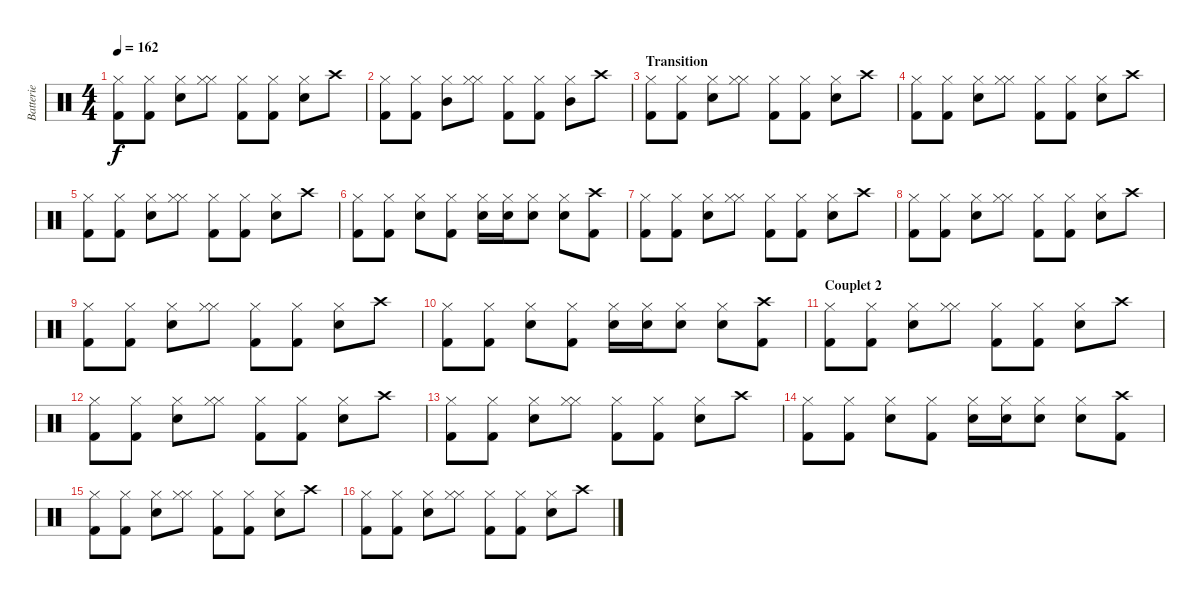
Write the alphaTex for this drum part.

\track ("Batterie" "Batterie") {instrument percussion}
\staff {score}
\articulation defaults
\ts (4 4)
\tempo 162
\clef neutral
\ks c
("Kick (hit) 2" "Hi-Hat (closed)").8{dy f} ("Kick (hit) 2" "Hi-Hat (closed)").8 ("Snare (hit) 2" "Hi-Hat (closed)").8 ("Hi-Hat (closed)" "Hi-Hat (closed)").8 ("Kick (hit) 2" "Hi-Hat (closed)").8 ("Kick (hit) 2" "Hi-Hat (closed)").8 ("Snare (hit) 2" "Hi-Hat (closed)").8 "Crash high (hit)".8 |
("Kick (hit) 2" "Hi-Hat (closed)").8 ("Kick (hit) 2" "Hi-Hat (closed)").8 ("Mid Tom (hit)" "Hi-Hat (closed)").8 ("Hi-Hat (closed)" "Hi-Hat (closed)").8 ("Kick (hit) 2" "Hi-Hat (closed)").8 ("Kick (hit) 2" "Hi-Hat (closed)").8 ("Mid Tom (hit)" "Hi-Hat (closed)").8 "Crash high (hit)".8 |
\section ("" "Transition")
("Kick (hit) 2" "Hi-Hat (closed)").8 ("Kick (hit) 2" "Hi-Hat (closed)").8 ("Snare (hit) 2" "Hi-Hat (closed)").8 ("Hi-Hat (closed)" "Hi-Hat (closed)").8 ("Kick (hit) 2" "Hi-Hat (closed)").8 ("Kick (hit) 2" "Hi-Hat (closed)").8 ("Snare (hit) 2" "Hi-Hat (closed)").8 "Crash high (hit)".8 |
("Kick (hit) 2" "Hi-Hat (closed)").8 ("Kick (hit) 2" "Hi-Hat (closed)").8 ("Snare (hit) 2" "Hi-Hat (closed)").8 ("Hi-Hat (closed)" "Hi-Hat (closed)").8 ("Kick (hit) 2" "Hi-Hat (closed)").8 ("Kick (hit) 2" "Hi-Hat (closed)").8 ("Snare (hit) 2" "Hi-Hat (closed)").8 "Crash high (hit)".8 |
("Kick (hit) 2" "Hi-Hat (closed)").8 ("Kick (hit) 2" "Hi-Hat (closed)").8 ("Snare (hit) 2" "Hi-Hat (closed)").8 ("Hi-Hat (closed)" "Hi-Hat (closed)").8 ("Kick (hit) 2" "Hi-Hat (closed)").8 ("Kick (hit) 2" "Hi-Hat (closed)").8 ("Snare (hit) 2" "Hi-Hat (closed)").8 "Crash high (hit)".8 |
("Kick (hit) 2" "Hi-Hat (closed)").8 ("Kick (hit) 2" "Hi-Hat (closed)").8 ("Snare (hit) 2" "Hi-Hat (closed)").8 ("Kick (hit) 2" "Hi-Hat (closed)").8 ("Snare (hit) 2" "Hi-Hat (closed)").16 ("Snare (hit) 2" "Hi-Hat (closed)").16 ("Snare (hit) 2" "Hi-Hat (closed)").8 ("Snare (hit) 2" "Hi-Hat (closed)").8 ("Kick (hit) 2" "Crash high (hit)").8 |
("Kick (hit) 2" "Hi-Hat (closed)").8 ("Kick (hit) 2" "Hi-Hat (closed)").8 ("Snare (hit) 2" "Hi-Hat (closed)").8 ("Hi-Hat (closed)" "Hi-Hat (closed)").8 ("Kick (hit) 2" "Hi-Hat (closed)").8 ("Kick (hit) 2" "Hi-Hat (closed)").8 ("Snare (hit) 2" "Hi-Hat (closed)").8 "Crash high (hit)".8 |
("Kick (hit) 2" "Hi-Hat (closed)").8 ("Kick (hit) 2" "Hi-Hat (closed)").8 ("Snare (hit) 2" "Hi-Hat (closed)").8 ("Hi-Hat (closed)" "Hi-Hat (closed)").8 ("Kick (hit) 2" "Hi-Hat (closed)").8 ("Kick (hit) 2" "Hi-Hat (closed)").8 ("Snare (hit) 2" "Hi-Hat (closed)").8 "Crash high (hit)".8 |
("Kick (hit) 2" "Hi-Hat (closed)").8 ("Kick (hit) 2" "Hi-Hat (closed)").8 ("Snare (hit) 2" "Hi-Hat (closed)").8 ("Hi-Hat (closed)" "Hi-Hat (closed)").8 ("Kick (hit) 2" "Hi-Hat (closed)").8 ("Kick (hit) 2" "Hi-Hat (closed)").8 ("Snare (hit) 2" "Hi-Hat (closed)").8 "Crash high (hit)".8 |
("Kick (hit) 2" "Hi-Hat (closed)").8 ("Kick (hit) 2" "Hi-Hat (closed)").8 ("Snare (hit) 2" "Hi-Hat (closed)").8 ("Kick (hit) 2" "Hi-Hat (closed)").8 ("Snare (hit) 2" "Hi-Hat (closed)").16 ("Snare (hit) 2" "Hi-Hat (closed)").16 ("Snare (hit) 2" "Hi-Hat (closed)").8 ("Snare (hit) 2" "Hi-Hat (closed)").8 ("Kick (hit) 2" "Crash high (hit)").8 |
\section ("" "Couplet 2")
("Kick (hit) 2" "Hi-Hat (closed)").8 ("Kick (hit) 2" "Hi-Hat (closed)").8 ("Snare (hit) 2" "Hi-Hat (closed)").8 ("Hi-Hat (closed)" "Hi-Hat (closed)").8 ("Kick (hit) 2" "Hi-Hat (closed)").8 ("Kick (hit) 2" "Hi-Hat (closed)").8 ("Snare (hit) 2" "Hi-Hat (closed)").8 "Crash high (hit)".8 |
("Kick (hit) 2" "Hi-Hat (closed)").8 ("Kick (hit) 2" "Hi-Hat (closed)").8 ("Snare (hit) 2" "Hi-Hat (closed)").8 ("Hi-Hat (closed)" "Hi-Hat (closed)").8 ("Kick (hit) 2" "Hi-Hat (closed)").8 ("Kick (hit) 2" "Hi-Hat (closed)").8 ("Snare (hit) 2" "Hi-Hat (closed)").8 "Crash high (hit)".8 |
("Kick (hit) 2" "Hi-Hat (closed)").8 ("Kick (hit) 2" "Hi-Hat (closed)").8 ("Snare (hit) 2" "Hi-Hat (closed)").8 ("Hi-Hat (closed)" "Hi-Hat (closed)").8 ("Kick (hit) 2" "Hi-Hat (closed)").8 ("Kick (hit) 2" "Hi-Hat (closed)").8 ("Snare (hit) 2" "Hi-Hat (closed)").8 "Crash high (hit)".8 |
("Kick (hit) 2" "Hi-Hat (closed)").8 ("Kick (hit) 2" "Hi-Hat (closed)").8 ("Snare (hit) 2" "Hi-Hat (closed)").8 ("Kick (hit) 2" "Hi-Hat (closed)").8 ("Snare (hit) 2" "Hi-Hat (closed)").16 ("Snare (hit) 2" "Hi-Hat (closed)").16 ("Snare (hit) 2" "Hi-Hat (closed)").8 ("Snare (hit) 2" "Hi-Hat (closed)").8 ("Kick (hit) 2" "Crash high (hit)").8 |
("Kick (hit) 2" "Hi-Hat (closed)").8 ("Kick (hit) 2" "Hi-Hat (closed)").8 ("Snare (hit) 2" "Hi-Hat (closed)").8 ("Hi-Hat (closed)" "Hi-Hat (closed)").8 ("Kick (hit) 2" "Hi-Hat (closed)").8 ("Kick (hit) 2" "Hi-Hat (closed)").8 ("Snare (hit) 2" "Hi-Hat (closed)").8 "Crash high (hit)".8 |
("Kick (hit) 2" "Hi-Hat (closed)").8 ("Kick (hit) 2" "Hi-Hat (closed)").8 ("Snare (hit) 2" "Hi-Hat (closed)").8 ("Hi-Hat (closed)" "Hi-Hat (closed)").8 ("Kick (hit) 2" "Hi-Hat (closed)").8 ("Kick (hit) 2" "Hi-Hat (closed)").8 ("Snare (hit) 2" "Hi-Hat (closed)").8 "Crash high (hit)".8
